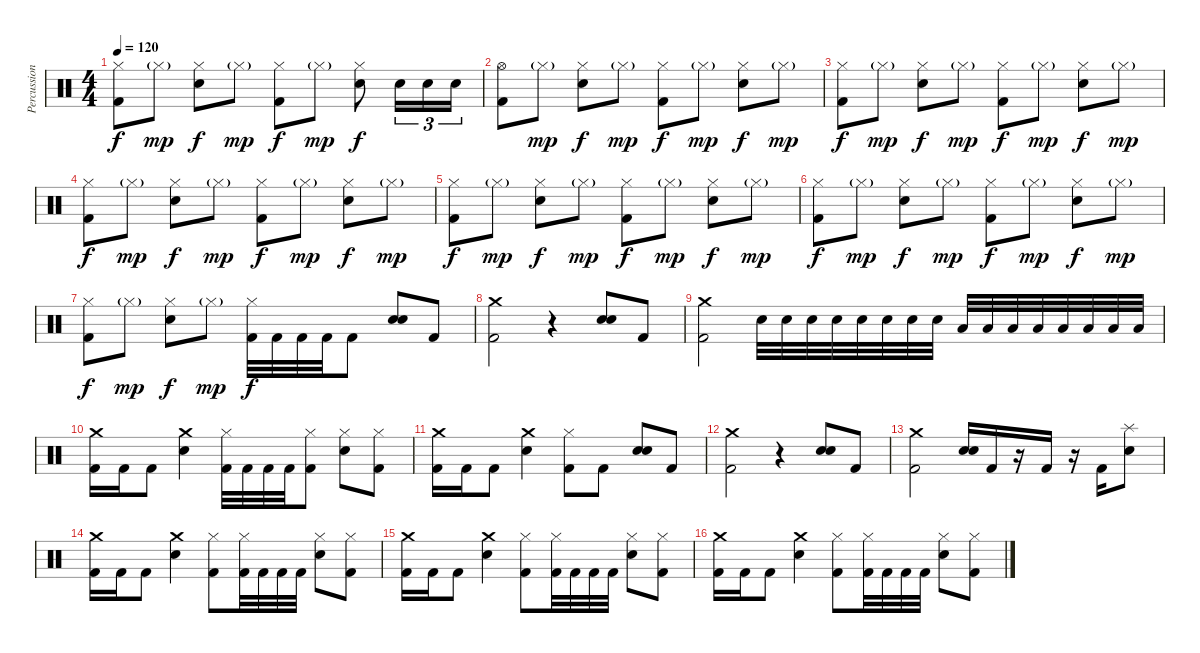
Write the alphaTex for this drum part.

\track ("Percussion" "Percussion") {instrument percussion}
\staff {score}
\articulation defaults
\ts (4 4)
\tempo 120
\clef neutral
\ks c
("Hi-Hat (closed)" "Kick (hit) 2").8{dy f} "Hi-Hat (closed)"{g}.8{dy mp} ("Hi-Hat (closed)" "Electric Snare (hit)").8{dy f} "Hi-Hat (closed)"{g}.8{dy mp} ("Hi-Hat (closed)" "Kick (hit) 2").8{dy f} "Hi-Hat (closed)"{g}.8{dy mp} ("Hi-Hat (closed)" "Electric Snare (hit)").8{dy f} "Electric Snare (hit)".16{tu (3 2)} "Electric Snare (hit)".16{tu (3 2)} "Electric Snare (hit)".16{tu (3 2)} |
("Hi-Hat (open)" "Kick (hit) 2").8 "Hi-Hat (closed)"{g}.8{dy mp} ("Hi-Hat (closed)" "Electric Snare (hit)").8{dy f} "Hi-Hat (closed)"{g}.8{dy mp} ("Hi-Hat (closed)" "Kick (hit) 2").8{dy f} "Hi-Hat (closed)"{g}.8{dy mp} ("Hi-Hat (closed)" "Electric Snare (hit)").8{dy f} "Hi-Hat (closed)"{g}.8{dy mp} |
("Hi-Hat (closed)" "Kick (hit) 2").8{dy f} "Hi-Hat (closed)"{g}.8{dy mp} ("Hi-Hat (closed)" "Electric Snare (hit)").8{dy f} "Hi-Hat (closed)"{g}.8{dy mp} ("Hi-Hat (closed)" "Kick (hit) 2").8{dy f} "Hi-Hat (closed)"{g}.8{dy mp} ("Hi-Hat (closed)" "Electric Snare (hit)").8{dy f} "Hi-Hat (closed)"{g}.8{dy mp} |
("Hi-Hat (closed)" "Kick (hit) 2").8{dy f} "Hi-Hat (closed)"{g}.8{dy mp} ("Hi-Hat (closed)" "Electric Snare (hit)").8{dy f} "Hi-Hat (closed)"{g}.8{dy mp} ("Hi-Hat (closed)" "Kick (hit) 2").8{dy f} "Hi-Hat (closed)"{g}.8{dy mp} ("Hi-Hat (closed)" "Electric Snare (hit)").8{dy f} "Hi-Hat (closed)"{g}.8{dy mp} |
("Hi-Hat (closed)" "Kick (hit) 2").8{dy f} "Hi-Hat (closed)"{g}.8{dy mp} ("Hi-Hat (closed)" "Electric Snare (hit)").8{dy f} "Hi-Hat (closed)"{g}.8{dy mp} ("Hi-Hat (closed)" "Kick (hit) 2").8{dy f} "Hi-Hat (closed)"{g}.8{dy mp} ("Hi-Hat (closed)" "Electric Snare (hit)").8{dy f} "Hi-Hat (closed)"{g}.8{dy mp} |
("Hi-Hat (closed)" "Kick (hit) 2").8{dy f} "Hi-Hat (closed)"{g}.8{dy mp} ("Hi-Hat (closed)" "Electric Snare (hit)").8{dy f} "Hi-Hat (closed)"{g}.8{dy mp} ("Hi-Hat (closed)" "Kick (hit) 2").8{dy f} "Hi-Hat (closed)"{g}.8{dy mp} ("Hi-Hat (closed)" "Electric Snare (hit)").8{dy f} "Hi-Hat (closed)"{g}.8{dy mp} |
("Hi-Hat (closed)" "Kick (hit) 2").8{dy f} "Hi-Hat (closed)"{g}.8{dy mp} ("Hi-Hat (closed)" "Electric Snare (hit)").8{dy f} "Hi-Hat (closed)"{g}.8{dy mp} ("Hi-Hat (closed)" "Kick (hit) 2").32{dy f} "Kick (hit) 2".32 "Kick (hit) 2".32 "Kick (hit) 2".32 "Kick (hit) 2".8 ("Electric Snare (hit)" "Electric Snare (hit)").8 "Kick (hit) 2".8 |
("Crash medium (hit)" "Kick (hit) 2").2 r.4 ("Electric Snare (hit)" "Electric Snare (hit)").8 "Kick (hit) 2".8 |
("Crash medium (hit)" "Kick (hit) 2").2 "Electric Snare (hit)".32 "Electric Snare (hit)".32 "Electric Snare (hit)".32 "Electric Snare (hit)".32 "Electric Snare (hit)".32 "Electric Snare (hit)".32 "Electric Snare (hit)".32 "Electric Snare (hit)".32 "Low Tom (hit)".32 "Low Tom (hit)".32 "Low Tom (hit)".32 "Low Tom (hit)".32 "Low Tom (hit)".32 "Low Tom (hit)".32 "Low Tom (hit)".32 "Low Tom (hit)".32 |
("Crash medium (hit)" "Kick (hit) 2").16 "Kick (hit) 2".16 "Kick (hit) 2".8 ("Crash medium (hit)" "Electric Snare (hit)").4 ("Hi-Hat (closed)" "Kick (hit) 2").32 "Kick (hit) 2".32 "Kick (hit) 2".32 "Kick (hit) 2".32 ("Hi-Hat (closed)" "Kick (hit) 2").8 ("Hi-Hat (closed)" "Electric Snare (hit)").8 ("Hi-Hat (closed)" "Kick (hit) 2").8 |
("Crash medium (hit)" "Kick (hit) 2").16 "Kick (hit) 2".16 "Kick (hit) 2".8 ("Crash medium (hit)" "Electric Snare (hit)").4 ("Hi-Hat (closed)" "Kick (hit) 2").8 "Kick (hit) 2".8 ("Electric Snare (hit)" "Electric Snare (hit)").8 "Kick (hit) 2".8 |
("Crash medium (hit)" "Kick (hit) 2").2 r.4 ("Electric Snare (hit)" "Electric Snare (hit)").8 "Kick (hit) 2".8 |
("Crash medium (hit)" "Kick (hit) 2").2 ("Electric Snare (hit)" "Electric Snare (hit)").16 "Kick (hit) 2".16 r.16 "Kick (hit) 2".16 r.16 "Kick (hit) 2".16 ("Splash (hit)" "Electric Snare (hit)").8 |
("Crash medium (hit)" "Kick (hit) 2").16 "Kick (hit) 2".16 "Kick (hit) 2".8 ("Crash medium (hit)" "Electric Snare (hit)").4 ("Hi-Hat (closed)" "Kick (hit) 2").8 ("Hi-Hat (closed)" "Kick (hit) 2").32 "Kick (hit) 2".32 "Kick (hit) 2".32 "Kick (hit) 2".32 ("Hi-Hat (closed)" "Electric Snare (hit)").8 ("Hi-Hat (closed)" "Kick (hit) 2").8 |
("Crash medium (hit)" "Kick (hit) 2").16 "Kick (hit) 2".16 "Kick (hit) 2".8 ("Crash medium (hit)" "Electric Snare (hit)").4 ("Hi-Hat (closed)" "Kick (hit) 2").8 ("Hi-Hat (closed)" "Kick (hit) 2").32 "Kick (hit) 2".32 "Kick (hit) 2".32 "Kick (hit) 2".32 ("Hi-Hat (closed)" "Electric Snare (hit)").8 ("Hi-Hat (closed)" "Kick (hit) 2").8 |
("Crash medium (hit)" "Kick (hit) 2").16 "Kick (hit) 2".16 "Kick (hit) 2".8 ("Crash medium (hit)" "Electric Snare (hit)").4 ("Hi-Hat (closed)" "Kick (hit) 2").8 ("Hi-Hat (closed)" "Kick (hit) 2").32 "Kick (hit) 2".32 "Kick (hit) 2".32 "Kick (hit) 2".32 ("Hi-Hat (closed)" "Electric Snare (hit)").8 ("Hi-Hat (closed)" "Kick (hit) 2").8
